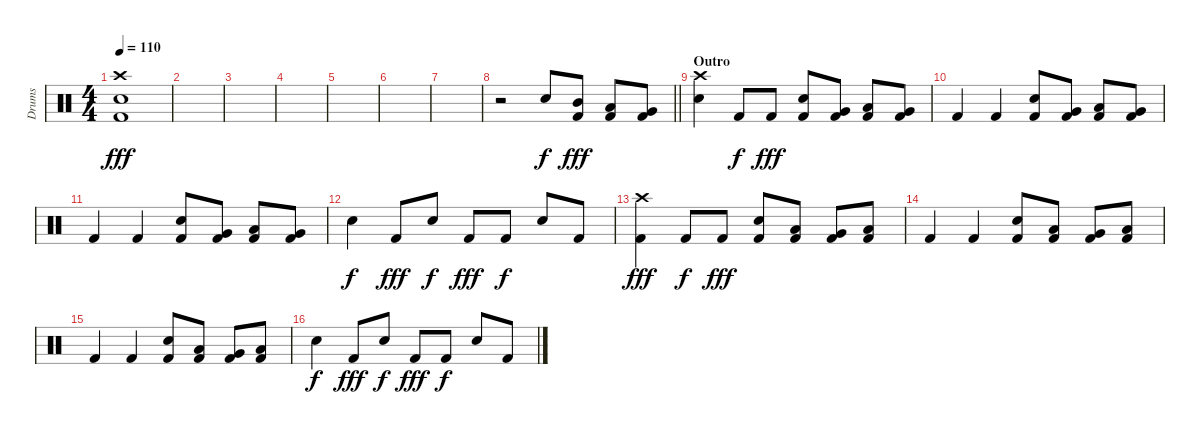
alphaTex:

\track ("Drums" "Drums") {instrument percussion}
\staff {score}
\articulation defaults
\ts (4 4)
\tempo 110
\clef neutral
\ks c
("Crash high (hit)" "Electric Snare (hit)" "Kick (hit) 2").1{dy fff} |
|
|
|
|
|
|
\barLineRight lightlight
r.2 "Electric Snare (hit)".8{dy f} ("Mid Tom (hit)" "Kick (hit) 2").8{dy fff} ("Low Tom (hit)" "Kick (hit) 2").8 ("Very Low Tom (hit)" "Kick (hit) 2").8 |
\section ("" "Outro")
("Crash high (hit)" "Electric Snare (hit)").4 "Kick (hit) 2".8{dy f} "Kick (hit) 2".8{dy fff} ("Electric Snare (hit)" "Kick (hit) 2").8 ("Very Low Tom (hit)" "Kick (hit) 2").8 ("Low Floor Tom (hit)" "Kick (hit) 2").8 ("Very Low Tom (hit)" "Kick (hit) 2").8 |
"Kick (hit) 2".4 "Kick (hit) 2".4 ("Electric Snare (hit)" "Kick (hit) 2").8 ("Very Low Tom (hit)" "Kick (hit) 2").8 ("Low Floor Tom (hit)" "Kick (hit) 2").8 ("Very Low Tom (hit)" "Kick (hit) 2").8 |
"Kick (hit) 2".4 "Kick (hit) 2".4 ("Electric Snare (hit)" "Kick (hit) 2").8 ("Very Low Tom (hit)" "Kick (hit) 2").8 ("Low Floor Tom (hit)" "Kick (hit) 2").8 ("Very Low Tom (hit)" "Kick (hit) 2").8 |
"Electric Snare (hit)".4{dy f} "Kick (hit) 2".8{dy fff} "Electric Snare (hit)".8{dy f} "Kick (hit) 2".8{dy fff} "Kick (hit) 2".8{dy f} "Electric Snare (hit)".8 "Kick (hit) 2".8 |
("Crash high (hit)" "Kick (hit) 2").4{dy fff} "Kick (hit) 2".8{dy f} "Kick (hit) 2".8{dy fff} ("Electric Snare (hit)" "Kick (hit) 2").8 ("Low Tom (hit)" "Kick (hit) 2").8 ("Very Low Tom (hit)" "Kick (hit) 2").8 ("Low Tom (hit)" "Kick (hit) 2").8 |
"Kick (hit) 2".4 "Kick (hit) 2".4 ("Electric Snare (hit)" "Kick (hit) 2").8 ("Low Tom (hit)" "Kick (hit) 2").8 ("Very Low Tom (hit)" "Kick (hit) 2").8 ("Low Tom (hit)" "Kick (hit) 2").8 |
"Kick (hit) 2".4 "Kick (hit) 2".4 ("Electric Snare (hit)" "Kick (hit) 2").8 ("Low Tom (hit)" "Kick (hit) 2").8 ("Very Low Tom (hit)" "Kick (hit) 2").8 ("Low Tom (hit)" "Kick (hit) 2").8 |
"Electric Snare (hit)".4{dy f} "Kick (hit) 2".8{dy fff} "Electric Snare (hit)".8{dy f} "Kick (hit) 2".8{dy fff} "Kick (hit) 2".8{dy f} "Electric Snare (hit)".8 "Kick (hit) 2".8
